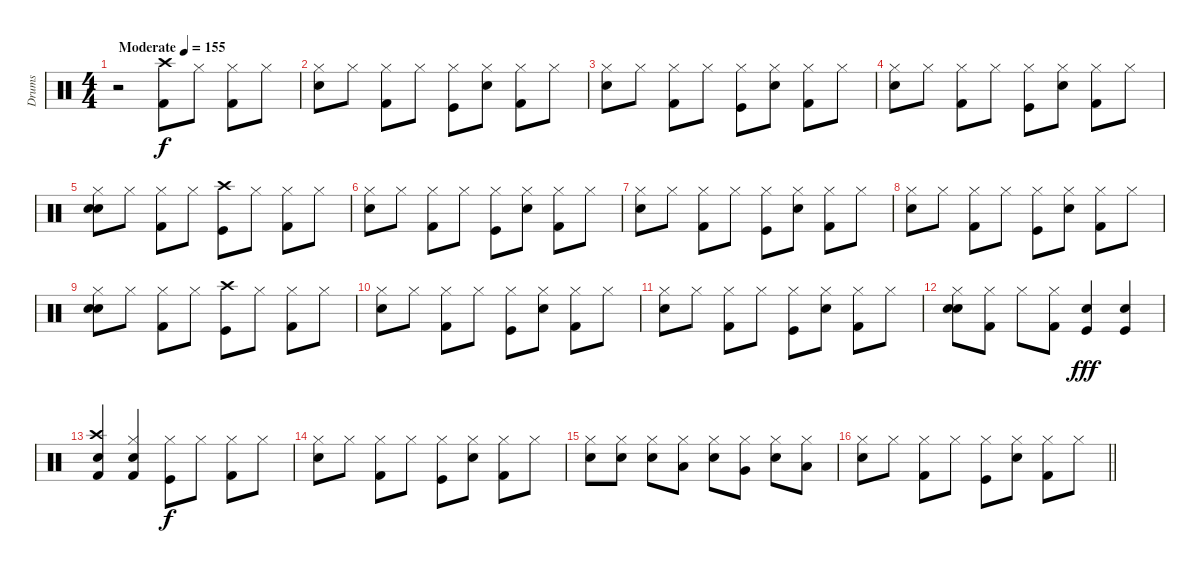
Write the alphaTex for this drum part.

\track ("Drums" "Drums") {instrument percussion}
\staff {score}
\articulation defaults
\ts (4 4)
\tempo (155 "Moderate")
\clef neutral
\ks c
r.2{dy f} ("Kick (hit) 2" "Crash high (hit)").8 "Hi-Hat (closed)".8 ("Kick (hit) 2" "Hi-Hat (closed)").8 "Hi-Hat (closed)".8 |
("Electric Snare (hit)" "Hi-Hat (closed)").8 "Hi-Hat (closed)".8 ("Kick (hit) 2" "Hi-Hat (closed)").8 "Hi-Hat (closed)".8 ("Kick (hit)" "Hi-Hat (closed)").8 ("Snare (hit) 2" "Hi-Hat (closed)").8 ("Kick (hit) 2" "Hi-Hat (closed)").8 "Hi-Hat (closed)".8 |
("Electric Snare (hit)" "Hi-Hat (closed)").8 "Hi-Hat (closed)".8 ("Kick (hit) 2" "Hi-Hat (closed)").8 "Hi-Hat (closed)".8 ("Kick (hit)" "Hi-Hat (closed)").8 ("Snare (hit) 2" "Hi-Hat (closed)").8 ("Kick (hit) 2" "Hi-Hat (closed)").8 "Hi-Hat (closed)".8 |
("Electric Snare (hit)" "Hi-Hat (closed)").8 "Hi-Hat (closed)".8 ("Kick (hit) 2" "Hi-Hat (closed)").8 "Hi-Hat (closed)".8 ("Kick (hit)" "Hi-Hat (closed)").8 ("Snare (hit) 2" "Hi-Hat (closed)").8 ("Kick (hit) 2" "Hi-Hat (closed)").8 "Hi-Hat (closed)".8 |
("Electric Snare (hit)" "Snare (hit) 2" "Hi-Hat (closed)").8 "Hi-Hat (closed)".8 ("Kick (hit) 2" "Hi-Hat (closed)").8 "Hi-Hat (closed)".8 ("Kick (hit)" "Crash high (hit)").8 "Hi-Hat (closed)".8 ("Kick (hit) 2" "Hi-Hat (closed)").8 "Hi-Hat (closed)".8 |
("Electric Snare (hit)" "Hi-Hat (closed)").8 "Hi-Hat (closed)".8 ("Kick (hit) 2" "Hi-Hat (closed)").8 "Hi-Hat (closed)".8 ("Kick (hit)" "Hi-Hat (closed)").8 ("Snare (hit) 2" "Hi-Hat (closed)").8 ("Kick (hit) 2" "Hi-Hat (closed)").8 "Hi-Hat (closed)".8 |
("Electric Snare (hit)" "Hi-Hat (closed)").8 "Hi-Hat (closed)".8 ("Kick (hit) 2" "Hi-Hat (closed)").8 "Hi-Hat (closed)".8 ("Kick (hit)" "Hi-Hat (closed)").8 ("Snare (hit) 2" "Hi-Hat (closed)").8 ("Kick (hit) 2" "Hi-Hat (closed)").8 "Hi-Hat (closed)".8 |
("Electric Snare (hit)" "Hi-Hat (closed)").8 "Hi-Hat (closed)".8 ("Kick (hit) 2" "Hi-Hat (closed)").8 "Hi-Hat (closed)".8 ("Kick (hit)" "Hi-Hat (closed)").8 ("Snare (hit) 2" "Hi-Hat (closed)").8 ("Kick (hit) 2" "Hi-Hat (closed)").8 "Hi-Hat (closed)".8 |
("Electric Snare (hit)" "Snare (hit) 2" "Hi-Hat (closed)").8 "Hi-Hat (closed)".8 ("Kick (hit) 2" "Hi-Hat (closed)").8 "Hi-Hat (closed)".8 ("Kick (hit)" "Crash high (hit)").8 "Hi-Hat (closed)".8 ("Kick (hit) 2" "Hi-Hat (closed)").8 "Hi-Hat (closed)".8 |
("Electric Snare (hit)" "Hi-Hat (closed)").8 "Hi-Hat (closed)".8 ("Kick (hit) 2" "Hi-Hat (closed)").8 "Hi-Hat (closed)".8 ("Kick (hit)" "Hi-Hat (closed)").8 ("Snare (hit) 2" "Hi-Hat (closed)").8 ("Kick (hit) 2" "Hi-Hat (closed)").8 "Hi-Hat (closed)".8 |
("Electric Snare (hit)" "Hi-Hat (closed)").8 "Hi-Hat (closed)".8 ("Kick (hit) 2" "Hi-Hat (closed)").8 "Hi-Hat (closed)".8 ("Kick (hit)" "Hi-Hat (closed)").8 ("Snare (hit) 2" "Hi-Hat (closed)").8 ("Kick (hit) 2" "Hi-Hat (closed)").8 "Hi-Hat (closed)".8 |
("Electric Snare (hit)" "Snare (hit) 2" "Hi-Hat (closed)").8 ("Kick (hit) 2" "Hi-Hat (closed)").8 "Hi-Hat (closed)".8 ("Kick (hit) 2" "Hi-Hat (closed)").8 ("Kick (hit)" "Electric Snare (hit)").4{dy fff} ("Kick (hit)" "Electric Snare (hit)").4 |
("Kick (hit) 2" "Electric Snare (hit)" "Crash high (hit)").4 ("Kick (hit) 2" "Electric Snare (hit)" "Hi-Hat (closed)").4 ("Kick (hit)" "Hi-Hat (closed)").8{dy f} "Hi-Hat (closed)".8 ("Kick (hit) 2" "Hi-Hat (closed)").8 "Hi-Hat (closed)".8 |
("Electric Snare (hit)" "Hi-Hat (closed)").8 "Hi-Hat (closed)".8 ("Kick (hit) 2" "Hi-Hat (closed)").8 "Hi-Hat (closed)".8 ("Kick (hit)" "Hi-Hat (closed)").8 ("Snare (hit) 2" "Hi-Hat (closed)").8 ("Kick (hit) 2" "Hi-Hat (closed)").8 "Hi-Hat (closed)".8 |
("Electric Snare (hit)" "Hi-Hat (closed)").8 ("Snare (hit) 2" "Hi-Hat (closed)").8 ("Electric Snare (hit)" "Hi-Hat (closed)").8 ("Low Tom (hit)" "Hi-Hat (closed)").8 ("Electric Snare (hit)" "Hi-Hat (closed)").8 ("Very Low Tom (hit)" "Hi-Hat (closed)").8 ("Electric Snare (hit)" "Hi-Hat (closed)").8 ("Low Tom (hit)" "Hi-Hat (closed)").8 |
\barLineRight lightlight
("Electric Snare (hit)" "Hi-Hat (closed)").8 "Hi-Hat (closed)".8 ("Kick (hit) 2" "Hi-Hat (closed)").8 "Hi-Hat (closed)".8 ("Kick (hit)" "Hi-Hat (closed)").8 ("Snare (hit) 2" "Hi-Hat (closed)").8 ("Kick (hit) 2" "Hi-Hat (closed)").8 "Hi-Hat (closed)".8
